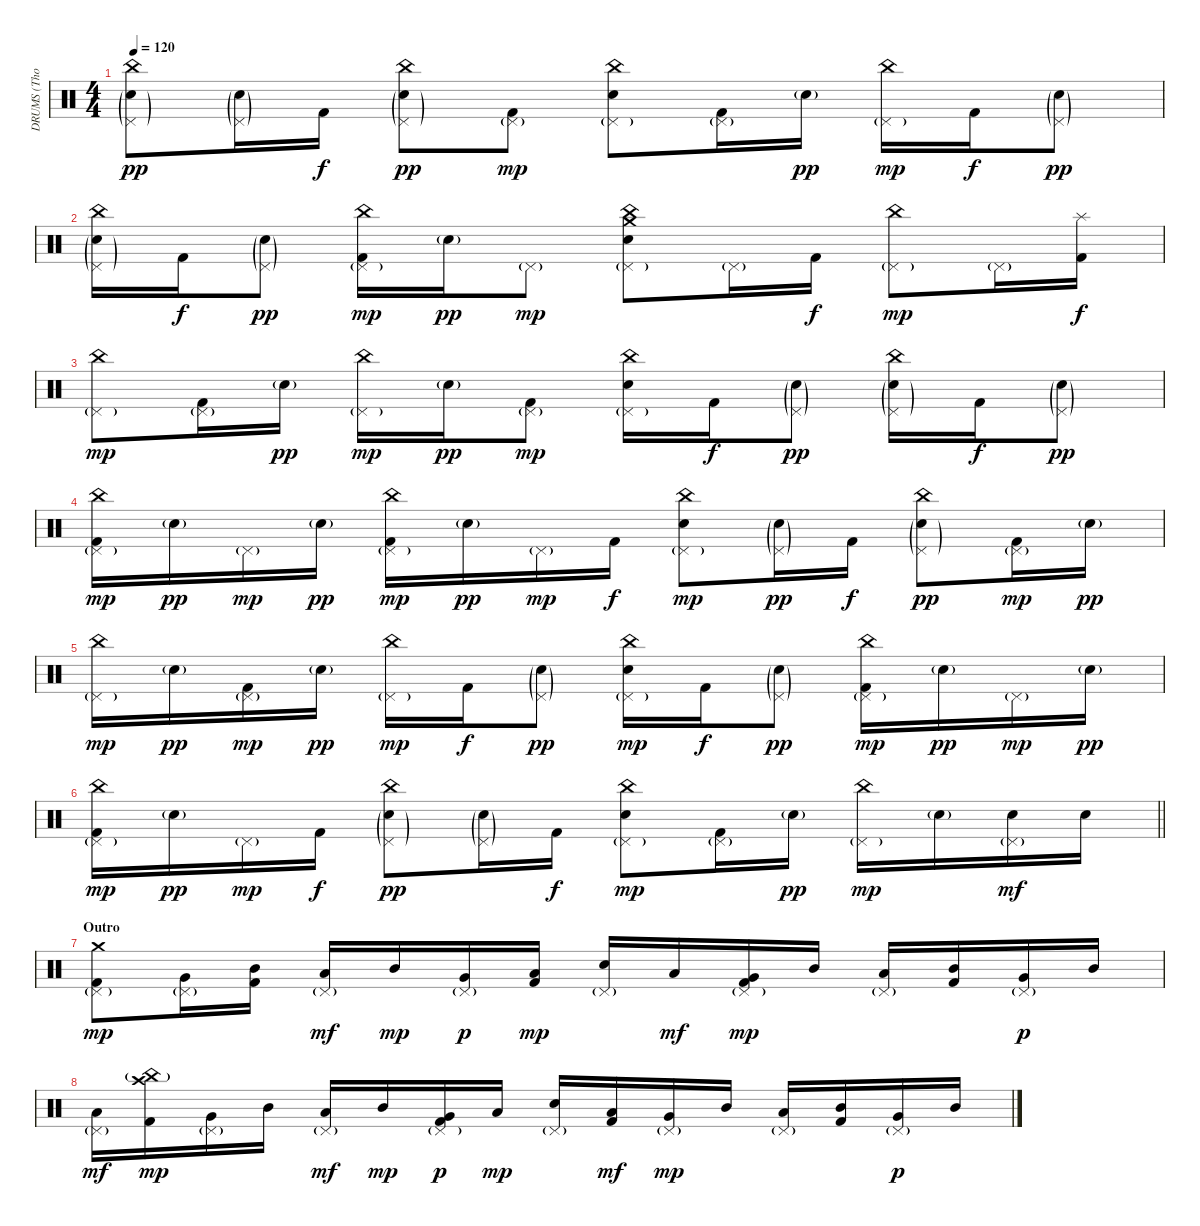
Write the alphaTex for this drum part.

\track ("DRUMS (Thomas Haake)" "DRUMS (Tho") {instrument percussion}
\staff {score}
\articulation defaults
\ts (4 4)
\tempo 120
\clef neutral
\ks c
("China (hit)" "Pedal Hi-Hat (hit)"{g} "Electric Snare (hit)"{g}).8{dy pp} ("Pedal Hi-Hat (hit)"{g} "Electric Snare (hit)"{g}).16 "Kick (hit) 2".16{dy f} ("China (hit)" "Pedal Hi-Hat (hit)"{g} "Electric Snare (hit)"{g}).8{dy pp} ("Pedal Hi-Hat (hit)"{g} "Kick (hit) 2").8{dy mp} ("China (hit)" "Pedal Hi-Hat (hit)"{g} "Electric Snare (hit)").8 ("Pedal Hi-Hat (hit)"{g} "Kick (hit) 2").16 "Electric Snare (hit)"{g}.16{dy pp} ("China (hit)" "Pedal Hi-Hat (hit)"{g}).16{dy mp} "Kick (hit) 2".16{dy f} ("Pedal Hi-Hat (hit)"{g} "Electric Snare (hit)"{g}).8{dy pp} |
("China (hit)" "Pedal Hi-Hat (hit)"{g} "Electric Snare (hit)"{g}).16 "Kick (hit) 2".16{dy f} ("Pedal Hi-Hat (hit)"{g} "Electric Snare (hit)"{g}).8{dy pp} ("China (hit)" "Pedal Hi-Hat (hit)"{g} "Kick (hit) 2").16{dy mp} "Electric Snare (hit)"{g}.16{dy pp} "Pedal Hi-Hat (hit)"{g}.8{dy mp} ("China (hit)" "Pedal Hi-Hat (hit)"{g} "Crash medium (hit)" "Electric Snare (hit)").8 "Pedal Hi-Hat (hit)"{g}.16 "Kick (hit) 2".16{dy f} ("China (hit)" "Pedal Hi-Hat (hit)"{g}).8{dy mp} "Pedal Hi-Hat (hit)"{g}.16 ("Splash (hit)" "Kick (hit) 2").16{dy f} |
("China (hit)" "Pedal Hi-Hat (hit)"{g}).8{dy mp} ("Pedal Hi-Hat (hit)"{g} "Kick (hit) 2").16 "Electric Snare (hit)"{g}.16{dy pp} ("China (hit)" "Pedal Hi-Hat (hit)"{g}).16{dy mp} "Electric Snare (hit)"{g}.16{dy pp} ("Pedal Hi-Hat (hit)"{g} "Kick (hit) 2").8{dy mp} ("China (hit)" "Pedal Hi-Hat (hit)"{g} "Electric Snare (hit)").16 "Kick (hit) 2".16{dy f} ("Pedal Hi-Hat (hit)"{g} "Electric Snare (hit)"{g}).8{dy pp} ("China (hit)" "Pedal Hi-Hat (hit)"{g} "Electric Snare (hit)"{g}).16 "Kick (hit) 2".16{dy f} ("Pedal Hi-Hat (hit)"{g} "Electric Snare (hit)"{g}).8{dy pp} |
("China (hit)" "Pedal Hi-Hat (hit)"{g} "Kick (hit) 2").16{dy mp} "Electric Snare (hit)"{g}.16{dy pp} "Pedal Hi-Hat (hit)"{g}.16{dy mp} "Electric Snare (hit)"{g}.16{dy pp} ("China (hit)" "Pedal Hi-Hat (hit)"{g} "Kick (hit) 2").16{dy mp} "Electric Snare (hit)"{g}.16{dy pp} "Pedal Hi-Hat (hit)"{g}.16{dy mp} "Kick (hit) 2".16{dy f} ("China (hit)" "Pedal Hi-Hat (hit)"{g} "Electric Snare (hit)").8{dy mp} ("Pedal Hi-Hat (hit)"{g} "Electric Snare (hit)"{g}).16{dy pp} "Kick (hit) 2".16{dy f} ("China (hit)" "Pedal Hi-Hat (hit)"{g} "Electric Snare (hit)"{g}).8{dy pp} ("Pedal Hi-Hat (hit)"{g} "Kick (hit) 2").16{dy mp} "Electric Snare (hit)"{g}.16{dy pp} |
("China (hit)" "Pedal Hi-Hat (hit)"{g}).16{dy mp} "Electric Snare (hit)"{g}.16{dy pp} ("Pedal Hi-Hat (hit)"{g} "Kick (hit) 2").16{dy mp} "Electric Snare (hit)"{g}.16{dy pp} ("China (hit)" "Pedal Hi-Hat (hit)"{g}).16{dy mp} "Kick (hit) 2".16{dy f} ("Pedal Hi-Hat (hit)"{g} "Electric Snare (hit)"{g}).8{dy pp} ("China (hit)" "Pedal Hi-Hat (hit)"{g} "Electric Snare (hit)").16{dy mp} "Kick (hit) 2".16{dy f} ("Pedal Hi-Hat (hit)"{g} "Electric Snare (hit)"{g}).8{dy pp} ("China (hit)" "Pedal Hi-Hat (hit)"{g} "Kick (hit) 2").16{dy mp} "Electric Snare (hit)"{g}.16{dy pp} "Pedal Hi-Hat (hit)"{g}.16{dy mp} "Electric Snare (hit)"{g}.16{dy pp} |
\barLineRight lightlight
("China (hit)" "Pedal Hi-Hat (hit)"{g} "Kick (hit) 2").16{dy mp} "Electric Snare (hit)"{g}.16{dy pp} "Pedal Hi-Hat (hit)"{g}.16{dy mp} "Kick (hit) 2".16{dy f} ("China (hit)" "Pedal Hi-Hat (hit)"{g} "Electric Snare (hit)"{g}).8{dy pp} ("Pedal Hi-Hat (hit)"{g} "Electric Snare (hit)"{g}).16 "Kick (hit) 2".16{dy f} ("China (hit)" "Pedal Hi-Hat (hit)"{g} "Electric Snare (hit)").8{dy mp} ("Pedal Hi-Hat (hit)"{g} "Kick (hit) 2").16 "Electric Snare (hit)"{g}.16{dy pp} ("China (hit)" "Pedal Hi-Hat (hit)"{g}).16{dy mp} "Electric Snare (hit)"{g}.16 ("Pedal Hi-Hat (hit)"{g} "Electric Snare (hit)").16{dy mf} "Electric Snare (hit)".16 |
\section ("" "Outro")
("Pedal Hi-Hat (hit)"{g} "Crash medium (hit)" "Kick (hit) 2").8{dy mp} ("Pedal Hi-Hat (hit)"{g} "Very Low Tom (hit)").16 ("Mid Tom (hit)" "Kick (hit) 2").16 ("Pedal Hi-Hat (hit)"{g} "Low Floor Tom (hit)").16{dy mf} "Mid Tom (hit)".16{dy mp} ("Pedal Hi-Hat (hit)"{g} "Very Low Tom (hit)").16{dy p} ("Low Tom (hit)" "Kick (hit) 2").16{dy mp} ("Pedal Hi-Hat (hit)"{g} "Electric Snare (hit)").16 "Low Tom (hit)".16{dy mf} ("Pedal Hi-Hat (hit)"{g} "Very Low Tom (hit)" "Kick (hit) 2").16{dy mp} "Mid Tom (hit)".16 ("Pedal Hi-Hat (hit)"{g} "Low Floor Tom (hit)").16 ("Mid Tom (hit)" "Kick (hit) 2").16 ("Pedal Hi-Hat (hit)"{g} "Very Low Tom (hit)").16{dy p} "Mid Tom (hit)".16 |
("Pedal Hi-Hat (hit)"{g} "Low Floor Tom (hit)").16{dy mf} ("China (hit)"{g} "Crash high (hit)" "Kick (hit) 2").16{dy mp} ("Pedal Hi-Hat (hit)"{g} "Very Low Tom (hit)").16 "Mid Tom (hit)".16 ("Pedal Hi-Hat (hit)"{g} "Low Floor Tom (hit)").16{dy mf} "Mid Tom (hit)".16{dy mp} ("Pedal Hi-Hat (hit)"{g} "Very Low Tom (hit)" "Kick (hit) 2").16{dy p} "Low Tom (hit)".16{dy mp} ("Pedal Hi-Hat (hit)"{g} "Electric Snare (hit)").16 ("Low Tom (hit)" "Kick (hit) 2").16{dy mf} ("Pedal Hi-Hat (hit)"{g} "Very Low Tom (hit)").16{dy mp} "Mid Tom (hit)".16 ("Pedal Hi-Hat (hit)"{g} "Low Floor Tom (hit)").16 ("Mid Tom (hit)" "Kick (hit) 2").16 ("Pedal Hi-Hat (hit)"{g} "Very Low Tom (hit)").16{dy p} "Mid Tom (hit)".16
